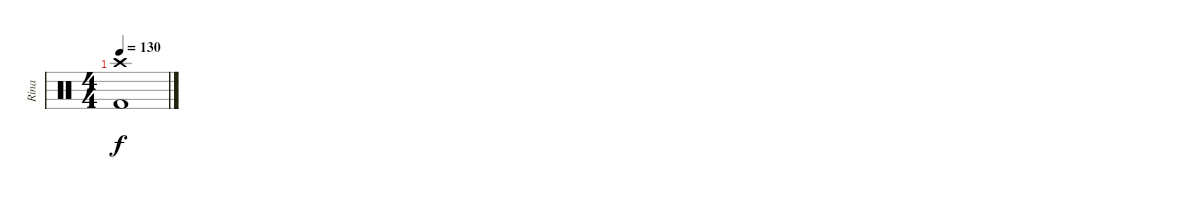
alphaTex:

\track ("Rina" "Rina") {instrument percussion}
\staff {score}
\articulation defaults
\ts (4 4)
\tempo 130
\clef neutral
\ks c
("Crash high (hit)"{t} "Kick (hit) 2"{t}).1{dy f}
